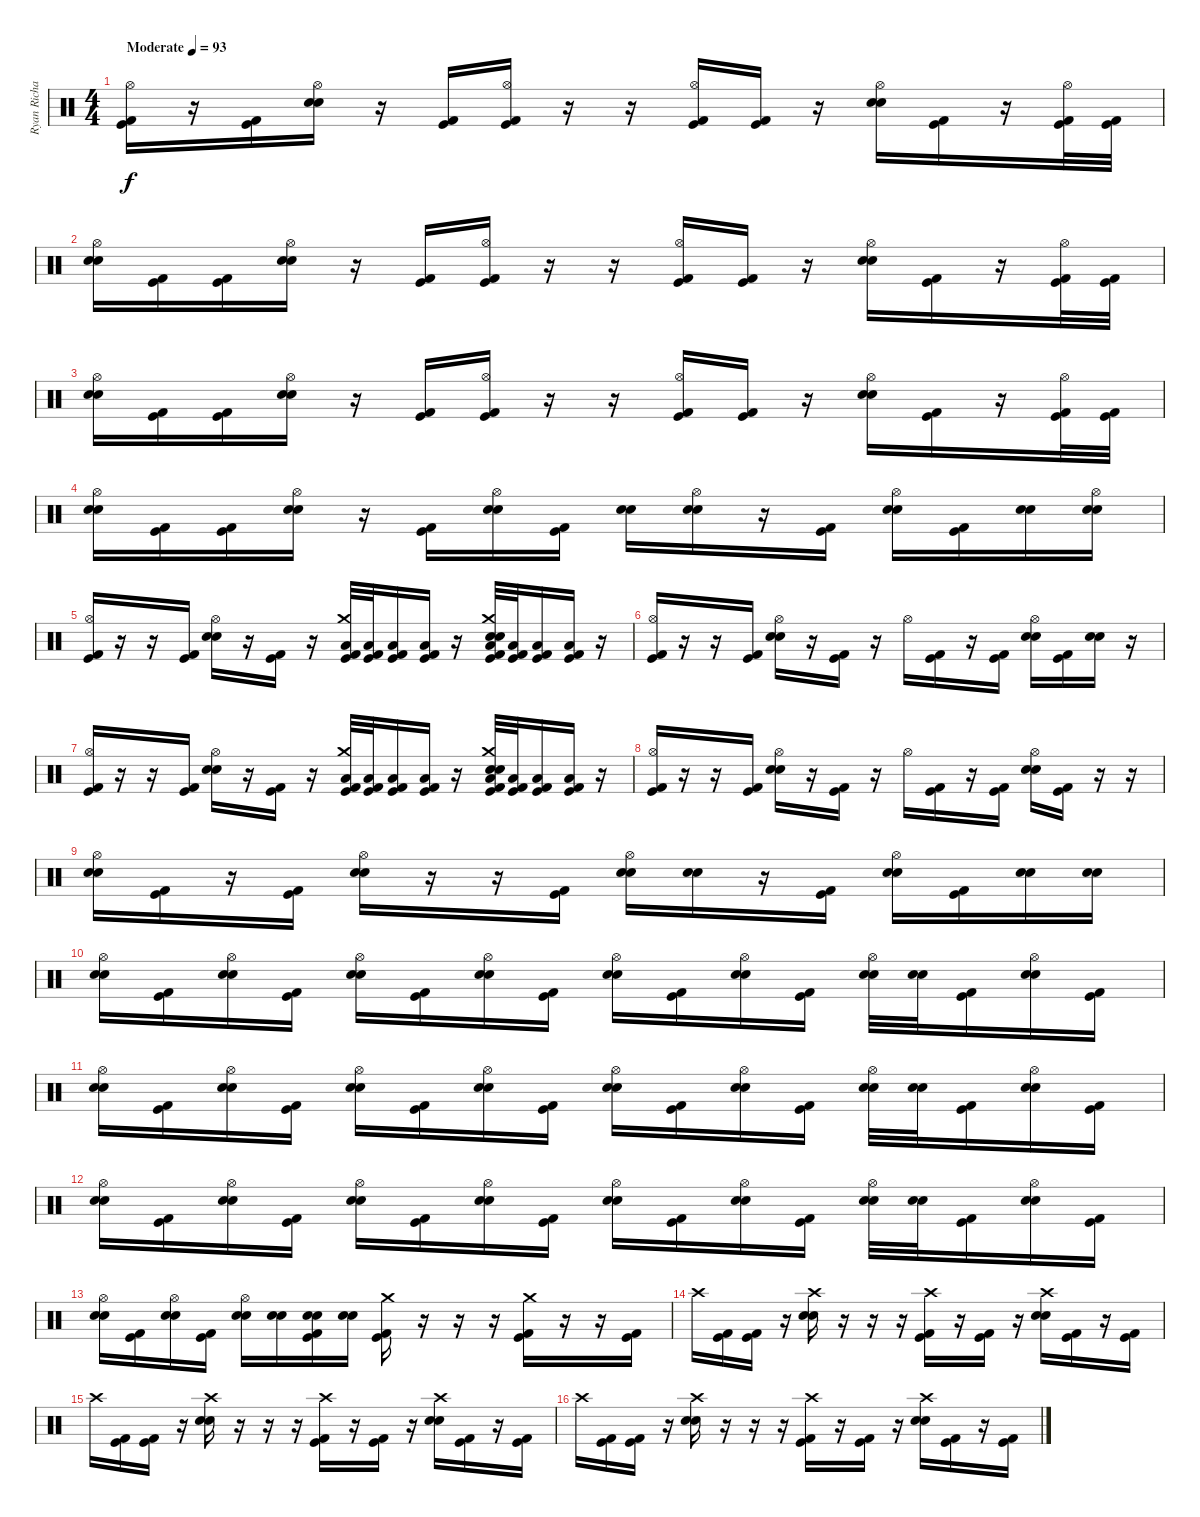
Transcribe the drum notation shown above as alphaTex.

\track ("Ryan Richards" "Ryan Richa") {instrument percussion}
\staff {score}
\articulation defaults
\ts (4 4)
\tempo (93 "Moderate")
\clef neutral
\ks c
("Kick (hit)" "Hi-Hat (open)" "Kick (hit) 2").16{dy f} r.16 ("Kick (hit)" "Kick (hit) 2").16 ("Snare (hit) 2" "Hi-Hat (open)" "Electric Snare (hit)").16 r.16 ("Kick (hit)" "Kick (hit) 2").16 ("Kick (hit)" "Hi-Hat (open)" "Kick (hit) 2").16 r.16 r.16 ("Kick (hit)" "Hi-Hat (open)" "Kick (hit) 2").16 ("Kick (hit)" "Kick (hit) 2").16 r.16 ("Snare (hit) 2" "Hi-Hat (open)" "Electric Snare (hit)").16 ("Kick (hit)" "Kick (hit) 2").16 r.16 ("Kick (hit)" "Hi-Hat (open)" "Kick (hit) 2").32 ("Kick (hit)" "Kick (hit) 2").32 |
("Snare (hit) 2" "Hi-Hat (open)" "Electric Snare (hit)").16 ("Kick (hit)" "Kick (hit) 2").16 ("Kick (hit)" "Kick (hit) 2").16 ("Snare (hit) 2" "Hi-Hat (open)" "Electric Snare (hit)").16 r.16 ("Kick (hit)" "Kick (hit) 2").16 ("Kick (hit)" "Hi-Hat (open)" "Kick (hit) 2").16 r.16 r.16 ("Kick (hit)" "Hi-Hat (open)" "Kick (hit) 2").16 ("Kick (hit)" "Kick (hit) 2").16 r.16 ("Snare (hit) 2" "Hi-Hat (open)" "Electric Snare (hit)").16 ("Kick (hit)" "Kick (hit) 2").16 r.16 ("Kick (hit)" "Hi-Hat (open)" "Kick (hit) 2").32 ("Kick (hit)" "Kick (hit) 2").32 |
("Snare (hit) 2" "Hi-Hat (open)" "Electric Snare (hit)").16 ("Kick (hit)" "Kick (hit) 2").16 ("Kick (hit)" "Kick (hit) 2").16 ("Snare (hit) 2" "Hi-Hat (open)" "Electric Snare (hit)").16 r.16 ("Kick (hit)" "Kick (hit) 2").16 ("Kick (hit)" "Hi-Hat (open)" "Kick (hit) 2").16 r.16 r.16 ("Kick (hit)" "Hi-Hat (open)" "Kick (hit) 2").16 ("Kick (hit)" "Kick (hit) 2").16 r.16 ("Snare (hit) 2" "Hi-Hat (open)" "Electric Snare (hit)").16 ("Kick (hit)" "Kick (hit) 2").16 r.16 ("Kick (hit)" "Hi-Hat (open)" "Kick (hit) 2").32 ("Kick (hit)" "Kick (hit) 2").32 |
("Snare (hit) 2" "Hi-Hat (open)" "Electric Snare (hit)").16 ("Kick (hit)" "Kick (hit) 2").16 ("Kick (hit)" "Kick (hit) 2").16 ("Snare (hit) 2" "Hi-Hat (open)" "Electric Snare (hit)").16 r.16 ("Kick (hit)" "Kick (hit) 2").16 ("Snare (hit) 2" "Hi-Hat (open)" "Electric Snare (hit)").16 ("Kick (hit)" "Kick (hit) 2").16 ("Snare (hit) 2" "Electric Snare (hit)").16 ("Snare (hit) 2" "Hi-Hat (open)" "Electric Snare (hit)").16 r.16 ("Kick (hit)" "Kick (hit) 2").16 ("Snare (hit) 2" "Hi-Hat (open)" "Electric Snare (hit)").16 ("Kick (hit)" "Kick (hit) 2").16 ("Snare (hit) 2" "Electric Snare (hit)").16 ("Snare (hit) 2" "Hi-Hat (open)" "Electric Snare (hit)").16 |
("Kick (hit)" "Hi-Hat (open)" "Kick (hit) 2").16 r.16 r.16 ("Kick (hit)" "Kick (hit) 2").16 ("Snare (hit) 2" "Hi-Hat (open)" "Electric Snare (hit)").16 r.16 ("Kick (hit)" "Kick (hit) 2").16 r.16 ("Kick (hit)" "Crash medium (hit)" "Low Floor Tom (hit)" "Kick (hit) 2").32 ("Kick (hit)" "Low Floor Tom (hit)" "Kick (hit) 2").32 ("Kick (hit)" "Low Floor Tom (hit)" "Kick (hit) 2").16 ("Kick (hit)" "Low Floor Tom (hit)" "Kick (hit) 2").16 r.16 ("Kick (hit)" "Snare (hit) 2" "Crash medium (hit)" "Low Floor Tom (hit)" "Electric Snare (hit)" "Kick (hit) 2").32 ("Kick (hit)" "Low Floor Tom (hit)" "Kick (hit) 2").32 ("Kick (hit)" "Low Floor Tom (hit)" "Kick (hit) 2").16 ("Kick (hit)" "Low Floor Tom (hit)" "Kick (hit) 2").16 r.16 |
("Kick (hit)" "Hi-Hat (open)" "Kick (hit) 2").16 r.16 r.16 ("Kick (hit)" "Kick (hit) 2").16 ("Snare (hit) 2" "Hi-Hat (open)" "Electric Snare (hit)").16 r.16 ("Kick (hit)" "Kick (hit) 2").16 r.16 "Hi-Hat (open)".16 ("Kick (hit)" "Kick (hit) 2").16 r.16 ("Kick (hit)" "Kick (hit) 2").16 ("Snare (hit) 2" "Hi-Hat (open)" "Electric Snare (hit)").16 ("Kick (hit)" "Kick (hit) 2").16 ("Snare (hit) 2" "Electric Snare (hit)").16 r.16 |
("Kick (hit)" "Hi-Hat (open)" "Kick (hit) 2").16 r.16 r.16 ("Kick (hit)" "Kick (hit) 2").16 ("Snare (hit) 2" "Hi-Hat (open)" "Electric Snare (hit)").16 r.16 ("Kick (hit)" "Kick (hit) 2").16 r.16 ("Kick (hit)" "Crash medium (hit)" "Low Floor Tom (hit)" "Kick (hit) 2").32 ("Kick (hit)" "Low Floor Tom (hit)" "Kick (hit) 2").32 ("Kick (hit)" "Low Floor Tom (hit)" "Kick (hit) 2").16 ("Kick (hit)" "Low Floor Tom (hit)" "Kick (hit) 2").16 r.16 ("Kick (hit)" "Snare (hit) 2" "Crash medium (hit)" "Low Floor Tom (hit)" "Electric Snare (hit)" "Kick (hit) 2").32 ("Kick (hit)" "Low Floor Tom (hit)" "Kick (hit) 2").32 ("Kick (hit)" "Low Floor Tom (hit)" "Kick (hit) 2").16 ("Kick (hit)" "Low Floor Tom (hit)" "Kick (hit) 2").16 r.16 |
("Kick (hit)" "Hi-Hat (open)" "Kick (hit) 2").16 r.16 r.16 ("Kick (hit)" "Kick (hit) 2").16 ("Snare (hit) 2" "Hi-Hat (open)" "Electric Snare (hit)").16 r.16 ("Kick (hit)" "Kick (hit) 2").16 r.16 "Hi-Hat (open)".16 ("Kick (hit)" "Kick (hit) 2").16 r.16 ("Kick (hit)" "Kick (hit) 2").16 ("Snare (hit) 2" "Hi-Hat (open)" "Electric Snare (hit)").16 ("Kick (hit)" "Kick (hit) 2").16 r.16 r.16 |
("Snare (hit) 2" "Hi-Hat (open)" "Electric Snare (hit)").16 ("Kick (hit)" "Kick (hit) 2").16 r.16 ("Kick (hit)" "Kick (hit) 2").16 ("Snare (hit) 2" "Hi-Hat (open)" "Electric Snare (hit)").16 r.16 r.16 ("Kick (hit)" "Kick (hit) 2").16 ("Snare (hit) 2" "Hi-Hat (open)" "Electric Snare (hit)").16 ("Snare (hit) 2" "Electric Snare (hit)").16 r.16 ("Kick (hit)" "Kick (hit) 2").16 ("Snare (hit) 2" "Hi-Hat (open)" "Electric Snare (hit)").16 ("Kick (hit)" "Kick (hit) 2").16 ("Snare (hit) 2" "Electric Snare (hit)").16 ("Snare (hit) 2" "Electric Snare (hit)").16 |
("Snare (hit) 2" "Hi-Hat (open)" "Electric Snare (hit)").16 ("Kick (hit)" "Kick (hit) 2").16 ("Snare (hit) 2" "Hi-Hat (open)" "Electric Snare (hit)").16 ("Kick (hit)" "Kick (hit) 2").16 ("Snare (hit) 2" "Hi-Hat (open)" "Electric Snare (hit)").16 ("Kick (hit)" "Kick (hit) 2").16 ("Snare (hit) 2" "Hi-Hat (open)" "Electric Snare (hit)").16 ("Kick (hit)" "Kick (hit) 2").16 ("Snare (hit) 2" "Hi-Hat (open)" "Electric Snare (hit)").16 ("Kick (hit)" "Kick (hit) 2").16 ("Snare (hit) 2" "Hi-Hat (open)" "Electric Snare (hit)").16 ("Kick (hit)" "Kick (hit) 2").16 ("Snare (hit) 2" "Hi-Hat (open)" "Electric Snare (hit)").32 ("Snare (hit) 2" "Electric Snare (hit)").32 ("Kick (hit)" "Kick (hit) 2").16 ("Snare (hit) 2" "Hi-Hat (open)" "Electric Snare (hit)").16 ("Kick (hit)" "Kick (hit) 2").16 |
("Snare (hit) 2" "Hi-Hat (open)" "Electric Snare (hit)").16 ("Kick (hit)" "Kick (hit) 2").16 ("Snare (hit) 2" "Hi-Hat (open)" "Electric Snare (hit)").16 ("Kick (hit)" "Kick (hit) 2").16 ("Snare (hit) 2" "Hi-Hat (open)" "Electric Snare (hit)").16 ("Kick (hit)" "Kick (hit) 2").16 ("Snare (hit) 2" "Hi-Hat (open)" "Electric Snare (hit)").16 ("Kick (hit)" "Kick (hit) 2").16 ("Snare (hit) 2" "Hi-Hat (open)" "Electric Snare (hit)").16 ("Kick (hit)" "Kick (hit) 2").16 ("Snare (hit) 2" "Hi-Hat (open)" "Electric Snare (hit)").16 ("Kick (hit)" "Kick (hit) 2").16 ("Snare (hit) 2" "Hi-Hat (open)" "Electric Snare (hit)").32 ("Snare (hit) 2" "Electric Snare (hit)").32 ("Kick (hit)" "Kick (hit) 2").16 ("Snare (hit) 2" "Hi-Hat (open)" "Electric Snare (hit)").16 ("Kick (hit)" "Kick (hit) 2").16 |
("Snare (hit) 2" "Hi-Hat (open)" "Electric Snare (hit)").16 ("Kick (hit)" "Kick (hit) 2").16 ("Snare (hit) 2" "Hi-Hat (open)" "Electric Snare (hit)").16 ("Kick (hit)" "Kick (hit) 2").16 ("Snare (hit) 2" "Hi-Hat (open)" "Electric Snare (hit)").16 ("Kick (hit)" "Kick (hit) 2").16 ("Snare (hit) 2" "Hi-Hat (open)" "Electric Snare (hit)").16 ("Kick (hit)" "Kick (hit) 2").16 ("Snare (hit) 2" "Hi-Hat (open)" "Electric Snare (hit)").16 ("Kick (hit)" "Kick (hit) 2").16 ("Snare (hit) 2" "Hi-Hat (open)" "Electric Snare (hit)").16 ("Kick (hit)" "Kick (hit) 2").16 ("Snare (hit) 2" "Hi-Hat (open)" "Electric Snare (hit)").32 ("Snare (hit) 2" "Electric Snare (hit)").32 ("Kick (hit)" "Kick (hit) 2").16 ("Snare (hit) 2" "Hi-Hat (open)" "Electric Snare (hit)").16 ("Kick (hit)" "Kick (hit) 2").16 |
("Snare (hit) 2" "Hi-Hat (open)" "Electric Snare (hit)").16 ("Kick (hit)" "Kick (hit) 2").16 ("Snare (hit) 2" "Hi-Hat (open)" "Electric Snare (hit)").16 ("Kick (hit)" "Kick (hit) 2").16 ("Snare (hit) 2" "Hi-Hat (open)" "Electric Snare (hit)").16 ("Snare (hit) 2" "Electric Snare (hit)").16 ("Kick (hit)" "Snare (hit) 2" "Electric Snare (hit)" "Kick (hit) 2").16 ("Snare (hit) 2" "Electric Snare (hit)").16 ("Kick (hit)" "Crash medium (hit)" "Kick (hit) 2").16 r.16 r.16 r.16 ("Kick (hit)" "Crash medium (hit)" "Kick (hit) 2").16 r.16 r.16 ("Kick (hit)" "Kick (hit) 2").16 |
"Crash high (hit)".16 ("Kick (hit)" "Kick (hit) 2").16 ("Kick (hit)" "Kick (hit) 2").16 r.16 ("Snare (hit) 2" "Crash high (hit)" "Electric Snare (hit)").16 r.16 r.16 r.16 ("Kick (hit)" "Crash high (hit)" "Kick (hit) 2").16 r.16 ("Kick (hit)" "Kick (hit) 2").16 r.16 ("Snare (hit) 2" "Crash high (hit)" "Electric Snare (hit)").16 ("Kick (hit)" "Kick (hit) 2").16 r.16 ("Kick (hit)" "Kick (hit) 2").16 |
"Crash high (hit)".16 ("Kick (hit)" "Kick (hit) 2").16 ("Kick (hit)" "Kick (hit) 2").16 r.16 ("Snare (hit) 2" "Crash high (hit)" "Electric Snare (hit)").16 r.16 r.16 r.16 ("Kick (hit)" "Crash high (hit)" "Kick (hit) 2").16 r.16 ("Kick (hit)" "Kick (hit) 2").16 r.16 ("Snare (hit) 2" "Crash high (hit)" "Electric Snare (hit)").16 ("Kick (hit)" "Kick (hit) 2").16 r.16 ("Kick (hit)" "Kick (hit) 2").16 |
"Crash high (hit)".16 ("Kick (hit)" "Kick (hit) 2").16 ("Kick (hit)" "Kick (hit) 2").16 r.16 ("Snare (hit) 2" "Crash high (hit)" "Electric Snare (hit)").16 r.16 r.16 r.16 ("Kick (hit)" "Crash high (hit)" "Kick (hit) 2").16 r.16 ("Kick (hit)" "Kick (hit) 2").16 r.16 ("Snare (hit) 2" "Crash high (hit)" "Electric Snare (hit)").16 ("Kick (hit)" "Kick (hit) 2").16 r.16 ("Kick (hit)" "Kick (hit) 2").16
